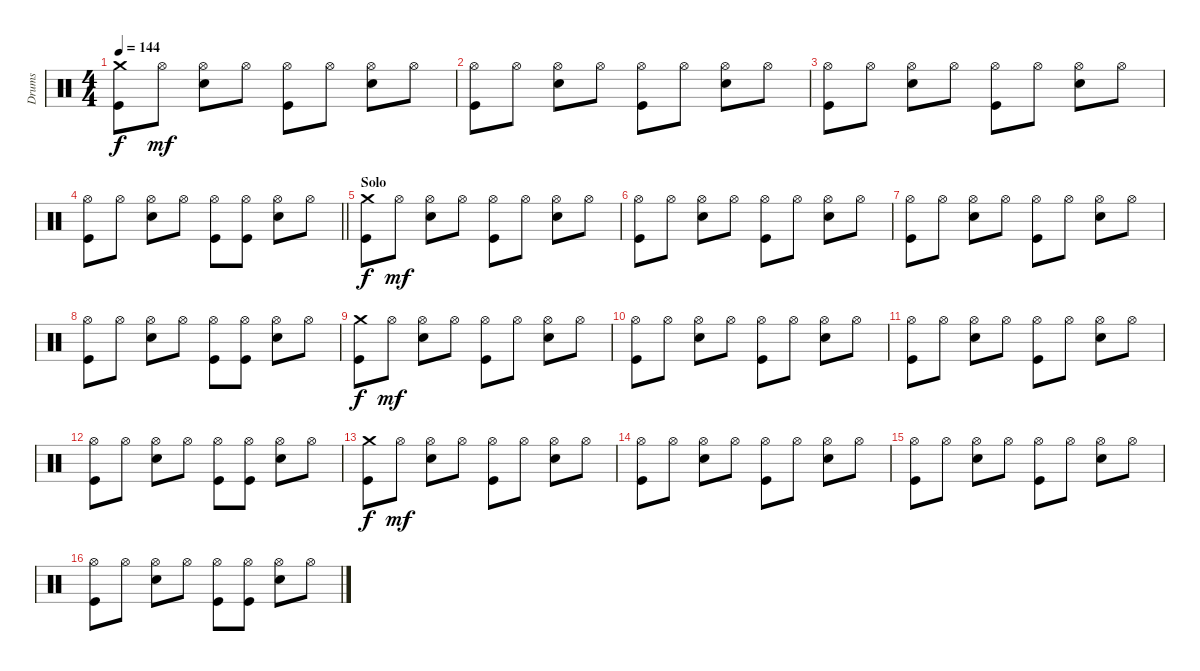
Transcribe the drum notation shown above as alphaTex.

\track ("Drums" "Drums") {instrument percussion}
\staff {score}
\articulation defaults
\ts (4 4)
\tempo 144
\clef neutral
\ks c
("Crash medium (hit)" "Kick (hit)").8{dy f} "Hi-Hat (open)".8{dy mf} ("Hi-Hat (open)" "Snare (hit) 2").8 "Hi-Hat (open)".8 ("Hi-Hat (open)" "Kick (hit)").8 "Hi-Hat (open)".8 ("Hi-Hat (open)" "Snare (hit) 2").8 "Hi-Hat (open)".8 |
("Hi-Hat (open)" "Kick (hit)").8 "Hi-Hat (open)".8 ("Hi-Hat (open)" "Snare (hit) 2").8 "Hi-Hat (open)".8 ("Hi-Hat (open)" "Kick (hit)").8 "Hi-Hat (open)".8 ("Hi-Hat (open)" "Snare (hit) 2").8 "Hi-Hat (open)".8 |
("Hi-Hat (open)" "Kick (hit)").8 "Hi-Hat (open)".8 ("Hi-Hat (open)" "Snare (hit) 2").8 "Hi-Hat (open)".8 ("Hi-Hat (open)" "Kick (hit)").8 "Hi-Hat (open)".8 ("Hi-Hat (open)" "Snare (hit) 2").8 "Hi-Hat (open)".8 |
\barLineRight lightlight
("Hi-Hat (open)" "Kick (hit)").8 "Hi-Hat (open)".8 ("Hi-Hat (open)" "Snare (hit) 2").8 "Hi-Hat (open)".8 ("Hi-Hat (open)" "Kick (hit)").8 ("Hi-Hat (open)" "Kick (hit)").8 ("Hi-Hat (open)" "Snare (hit) 2").8 "Hi-Hat (open)".8 |
\section ("" "Solo")
("Crash medium (hit)" "Kick (hit)").8{dy f} "Hi-Hat (open)".8{dy mf} ("Hi-Hat (open)" "Snare (hit) 2").8 "Hi-Hat (open)".8 ("Hi-Hat (open)" "Kick (hit)").8 "Hi-Hat (open)".8 ("Hi-Hat (open)" "Snare (hit) 2").8 "Hi-Hat (open)".8 |
("Hi-Hat (open)" "Kick (hit)").8 "Hi-Hat (open)".8 ("Hi-Hat (open)" "Snare (hit) 2").8 "Hi-Hat (open)".8 ("Hi-Hat (open)" "Kick (hit)").8 "Hi-Hat (open)".8 ("Hi-Hat (open)" "Snare (hit) 2").8 "Hi-Hat (open)".8 |
("Hi-Hat (open)" "Kick (hit)").8 "Hi-Hat (open)".8 ("Hi-Hat (open)" "Snare (hit) 2").8 "Hi-Hat (open)".8 ("Hi-Hat (open)" "Kick (hit)").8 "Hi-Hat (open)".8 ("Hi-Hat (open)" "Snare (hit) 2").8 "Hi-Hat (open)".8 |
("Hi-Hat (open)" "Kick (hit)").8 "Hi-Hat (open)".8 ("Hi-Hat (open)" "Snare (hit) 2").8 "Hi-Hat (open)".8 ("Hi-Hat (open)" "Kick (hit)").8 ("Hi-Hat (open)" "Kick (hit)").8 ("Hi-Hat (open)" "Snare (hit) 2").8 "Hi-Hat (open)".8 |
("Crash medium (hit)" "Kick (hit)").8{dy f} "Hi-Hat (open)".8{dy mf} ("Hi-Hat (open)" "Snare (hit) 2").8 "Hi-Hat (open)".8 ("Hi-Hat (open)" "Kick (hit)").8 "Hi-Hat (open)".8 ("Hi-Hat (open)" "Snare (hit) 2").8 "Hi-Hat (open)".8 |
("Hi-Hat (open)" "Kick (hit)").8 "Hi-Hat (open)".8 ("Hi-Hat (open)" "Snare (hit) 2").8 "Hi-Hat (open)".8 ("Hi-Hat (open)" "Kick (hit)").8 "Hi-Hat (open)".8 ("Hi-Hat (open)" "Snare (hit) 2").8 "Hi-Hat (open)".8 |
("Hi-Hat (open)" "Kick (hit)").8 "Hi-Hat (open)".8 ("Hi-Hat (open)" "Snare (hit) 2").8 "Hi-Hat (open)".8 ("Hi-Hat (open)" "Kick (hit)").8 "Hi-Hat (open)".8 ("Hi-Hat (open)" "Snare (hit) 2").8 "Hi-Hat (open)".8 |
("Hi-Hat (open)" "Kick (hit)").8 "Hi-Hat (open)".8 ("Hi-Hat (open)" "Snare (hit) 2").8 "Hi-Hat (open)".8 ("Hi-Hat (open)" "Kick (hit)").8 ("Hi-Hat (open)" "Kick (hit)").8 ("Hi-Hat (open)" "Snare (hit) 2").8 "Hi-Hat (open)".8 |
("Crash medium (hit)" "Kick (hit)").8{dy f} "Hi-Hat (open)".8{dy mf} ("Hi-Hat (open)" "Snare (hit) 2").8 "Hi-Hat (open)".8 ("Hi-Hat (open)" "Kick (hit)").8 "Hi-Hat (open)".8 ("Hi-Hat (open)" "Snare (hit) 2").8 "Hi-Hat (open)".8 |
("Hi-Hat (open)" "Kick (hit)").8 "Hi-Hat (open)".8 ("Hi-Hat (open)" "Snare (hit) 2").8 "Hi-Hat (open)".8 ("Hi-Hat (open)" "Kick (hit)").8 "Hi-Hat (open)".8 ("Hi-Hat (open)" "Snare (hit) 2").8 "Hi-Hat (open)".8 |
("Hi-Hat (open)" "Kick (hit)").8 "Hi-Hat (open)".8 ("Hi-Hat (open)" "Snare (hit) 2").8 "Hi-Hat (open)".8 ("Hi-Hat (open)" "Kick (hit)").8 "Hi-Hat (open)".8 ("Hi-Hat (open)" "Snare (hit) 2").8 "Hi-Hat (open)".8 |
("Hi-Hat (open)" "Kick (hit)").8 "Hi-Hat (open)".8 ("Hi-Hat (open)" "Snare (hit) 2").8 "Hi-Hat (open)".8 ("Hi-Hat (open)" "Kick (hit)").8 ("Hi-Hat (open)" "Kick (hit)").8 ("Hi-Hat (open)" "Snare (hit) 2").8 "Hi-Hat (open)".8
